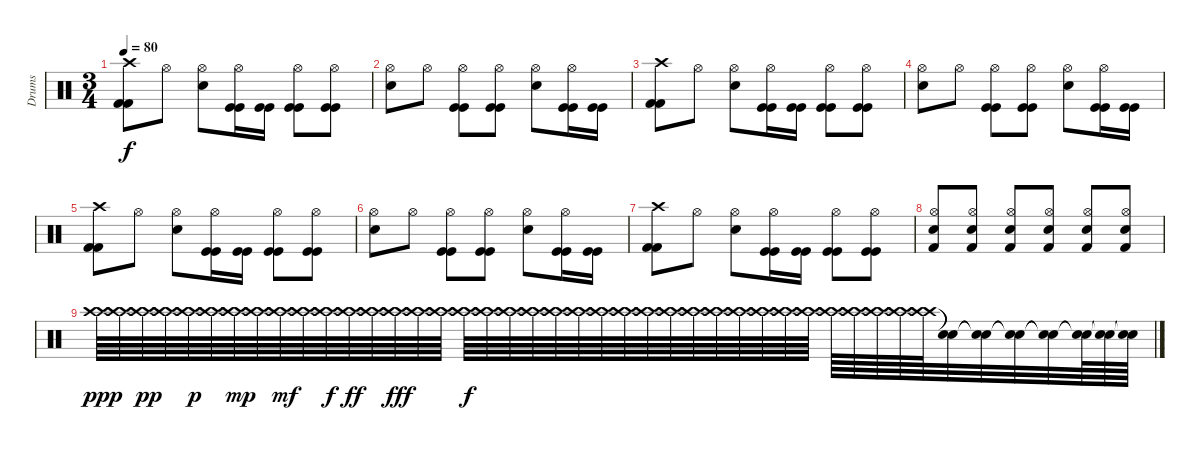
\track ("Drums" "Drums") {instrument percussion}
\staff {score}
\articulation defaults
\ts (3 4)
\tempo 80
\clef neutral
\ks c
("Crash high (hit)" "Kick (hit) 2" "Kick (hit) 2").8{dy f} "Hi-Hat (open)".8 ("Hi-Hat (open)" "Electric Snare (hit)").8 ("Hi-Hat (open)" "Kick (hit)" "Kick (hit)").16 ("Kick (hit)" "Kick (hit)").16 ("Hi-Hat (open)" "Kick (hit)" "Kick (hit)").8 ("Hi-Hat (open)" "Kick (hit)" "Kick (hit)").8 |
("Hi-Hat (open)" "Electric Snare (hit)").8 "Hi-Hat (open)".8 ("Hi-Hat (open)" "Kick (hit)" "Kick (hit)").8 ("Hi-Hat (open)" "Kick (hit)" "Kick (hit)").8 ("Hi-Hat (open)" "Electric Snare (hit)").8 ("Hi-Hat (open)" "Kick (hit)" "Kick (hit)").16 ("Kick (hit)" "Kick (hit)").16 |
("Crash high (hit)" "Kick (hit) 2" "Kick (hit) 2").8 "Hi-Hat (open)".8 ("Hi-Hat (open)" "Electric Snare (hit)").8 ("Hi-Hat (open)" "Kick (hit)" "Kick (hit)").16 ("Kick (hit)" "Kick (hit)").16 ("Hi-Hat (open)" "Kick (hit)" "Kick (hit)").8 ("Hi-Hat (open)" "Kick (hit)" "Kick (hit)").8 |
("Hi-Hat (open)" "Electric Snare (hit)").8 "Hi-Hat (open)".8 ("Hi-Hat (open)" "Kick (hit)" "Kick (hit)").8 ("Hi-Hat (open)" "Kick (hit)" "Kick (hit)").8 ("Hi-Hat (open)" "Electric Snare (hit)").8 ("Hi-Hat (open)" "Kick (hit)" "Kick (hit)").16 ("Kick (hit)" "Kick (hit)").16 |
("Crash high (hit)" "Kick (hit) 2" "Kick (hit) 2").8 "Hi-Hat (open)".8 ("Hi-Hat (open)" "Electric Snare (hit)").8 ("Hi-Hat (open)" "Kick (hit)" "Kick (hit)").16 ("Kick (hit)" "Kick (hit)").16 ("Hi-Hat (open)" "Kick (hit)" "Kick (hit)").8 ("Hi-Hat (open)" "Kick (hit)" "Kick (hit)").8 |
("Hi-Hat (open)" "Electric Snare (hit)").8 "Hi-Hat (open)".8 ("Hi-Hat (open)" "Kick (hit)" "Kick (hit)").8 ("Hi-Hat (open)" "Kick (hit)" "Kick (hit)").8 ("Hi-Hat (open)" "Electric Snare (hit)").8 ("Hi-Hat (open)" "Kick (hit)" "Kick (hit)").16 ("Kick (hit)" "Kick (hit)").16 |
("Crash high (hit)" "Kick (hit) 2" "Kick (hit) 2").8 "Hi-Hat (open)".8 ("Hi-Hat (open)" "Electric Snare (hit)").8 ("Hi-Hat (open)" "Kick (hit)" "Kick (hit)").16 ("Kick (hit)" "Kick (hit)").16 ("Hi-Hat (open)" "Kick (hit)" "Kick (hit)").8 ("Hi-Hat (open)" "Kick (hit)" "Kick (hit)").8 |
("Electric Snare (hit)" "Kick (hit) 2" "Hi-Hat (open)").8 ("Electric Snare (hit)" "Kick (hit) 2" "Hi-Hat (open)").8 ("Electric Snare (hit)" "Kick (hit) 2" "Hi-Hat (open)").8 ("Electric Snare (hit)" "Kick (hit) 2" "Hi-Hat (open)").8 ("Electric Snare (hit)" "Kick (hit) 2" "Hi-Hat (open)").8 ("Electric Snare (hit)" "Kick (hit) 2" "Hi-Hat (open)").8 |
("Crash high (hit)" "Crash high (hit)").64{dy ppp} ("Crash high (hit)" "Crash high (hit)").64 ("Crash high (hit)" "Crash high (hit)").64{dy pp} ("Crash high (hit)" "Crash high (hit)").64 ("Crash high (hit)" "Crash high (hit)").64{dy p} ("Crash high (hit)" "Crash high (hit)").64 ("Crash high (hit)" "Crash high (hit)").64{dy mp} ("Crash high (hit)" "Crash high (hit)").64 ("Crash high (hit)" "Crash high (hit)").64{dy mf} ("Crash high (hit)" "Crash high (hit)").64 ("Crash high (hit)" "Crash high (hit)").64{dy f} ("Crash high (hit)" "Crash high (hit)").64{dy ff} ("Crash high (hit)" "Crash high (hit)").64 ("Crash high (hit)" "Crash high (hit)").64{dy fff} ("Crash high (hit)" "Crash high (hit)").64 ("Crash high (hit)" "Crash high (hit)").64 ("Crash high (hit)" "Crash high (hit)").64{dy f} ("Crash high (hit)" "Crash high (hit)").64 ("Crash high (hit)" "Crash high (hit)").64 ("Crash high (hit)" "Crash high (hit)").64 ("Crash high (hit)" "Crash high (hit)").64 ("Crash high (hit)" "Crash high (hit)").64 ("Crash high (hit)" "Crash high (hit)").64 ("Crash high (hit)" "Crash high (hit)").64 ("Crash high (hit)" "Crash high (hit)").64 ("Crash high (hit)" "Crash high (hit)").64 ("Crash high (hit)" "Crash high (hit)").64 ("Crash high (hit)" "Crash high (hit)").64 ("Crash high (hit)" "Crash high (hit)").64 ("Crash high (hit)" "Crash high (hit)").64 ("Crash high (hit)" "Crash high (hit)").64 ("Crash high (hit)" "Crash high (hit)").64 ("Crash high (hit)" "Crash high (hit)").64 ("Crash high (hit)" "Crash high (hit)").64 ("Crash high (hit)" "Crash high (hit)").64 ("Crash high (hit)" "Crash high (hit)").64 ("Crash high (hit)" "Crash high (hit)").64 ("Snare (hit)"{t} "Snare (hit)"{t}).32 ("Snare (hit)"{t} "Snare (hit)"{t}).32 ("Snare (hit)"{t} "Snare (hit)"{t}).32 ("Snare (hit)"{t} "Snare (hit)"{t}).32 ("Snare (hit)"{t} "Snare (hit)"{t}).64 ("Snare (hit)"{t} "Snare (hit)"{t}).64 ("Snare (hit)"{t} "Snare (hit)"{t}).64
